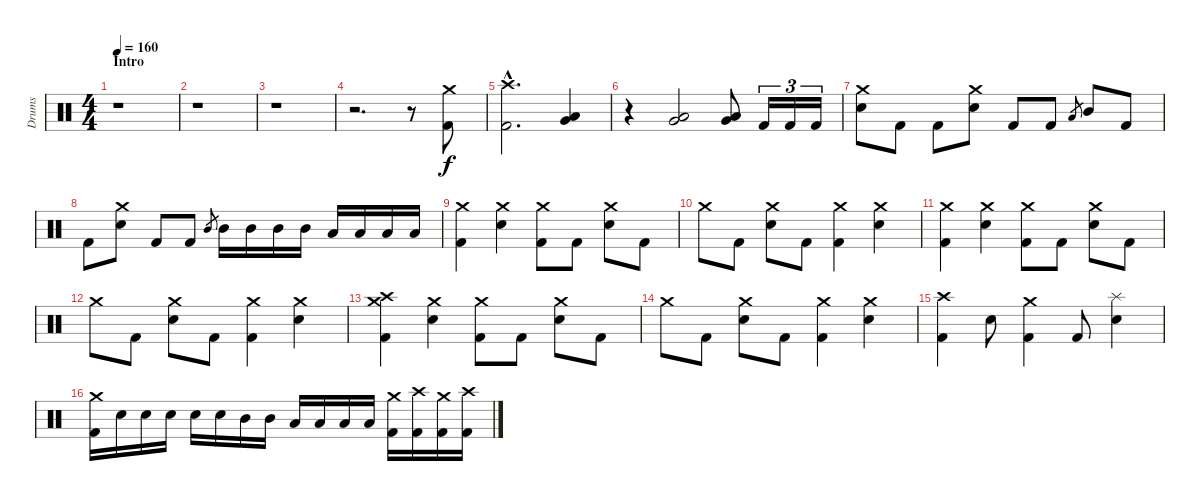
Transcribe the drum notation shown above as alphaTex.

\track ("Drums" "Drums") {instrument percussion}
\staff {score}
\articulation defaults
\ts (4 4)
\section ("" "Intro")
\tempo 160
\clef neutral
\ks c
r.1{dy f} |
r.1 |
r.1 |
r.2{d} r.8 ("Crash medium (hit)" "Kick (hit) 2").8 |
("Crash high (hit)"{hac} "Kick (hit) 2"{hac}).2{d} ("Very Low Tom (hit)" "Low Floor Tom (hit)").4 |
r.4 ("Very Low Tom (hit)" "Low Floor Tom (hit)").2 ("Very Low Tom (hit)" "Low Floor Tom (hit)").8 "Kick (hit) 2".16{tu (3 2)} "Kick (hit) 2".16{tu (3 2)} "Kick (hit) 2".16{tu (3 2)} |
("Crash medium (hit)" "Snare (hit) 2").8 "Kick (hit) 2".8 "Kick (hit) 2".8 ("Crash medium (hit)" "Snare (hit) 2").8 "Kick (hit) 2".8 "Kick (hit) 2".8 "Low Tom (hit)".8{gr} "Mid Tom (hit)".8 "Kick (hit) 2".8 |
"Kick (hit) 2".8 ("Crash medium (hit)" "Snare (hit) 2").8 "Kick (hit) 2".8 "Kick (hit) 2".8 "Mid Tom (hit)".8{gr} "Mid Tom (hit)".16 "Mid Tom (hit)".16 "Mid Tom (hit)".16 "Mid Tom (hit)".16 "Low Tom (hit)".16 "Low Tom (hit)".16 "Low Tom (hit)".16 "Low Tom (hit)".16 |
("Crash medium (hit)" "Kick (hit) 2").4 ("Crash medium (hit)" "Snare (hit) 2").4 ("Crash medium (hit)" "Kick (hit) 2").8 "Kick (hit) 2".8 ("Crash medium (hit)" "Snare (hit) 2").8 "Kick (hit) 2".8 |
"Crash medium (hit)".8 "Kick (hit) 2".8 ("Crash medium (hit)" "Snare (hit) 2").8 "Kick (hit) 2".8 ("Crash medium (hit)" "Kick (hit) 2").4 ("Crash medium (hit)" "Snare (hit) 2").4 |
("Crash medium (hit)" "Kick (hit) 2").4 ("Crash medium (hit)" "Snare (hit) 2").4 ("Crash medium (hit)" "Kick (hit) 2").8 "Kick (hit) 2".8 ("Crash medium (hit)" "Snare (hit) 2").8 "Kick (hit) 2".8 |
"Crash medium (hit)".8 "Kick (hit) 2".8 ("Crash medium (hit)" "Snare (hit) 2").8 "Kick (hit) 2".8 ("Crash medium (hit)" "Kick (hit) 2").4 ("Crash medium (hit)" "Snare (hit) 2").4 |
("Crash medium (hit)" "Crash high (hit)" "Kick (hit) 2").4 ("Crash medium (hit)" "Snare (hit) 2").4 ("Crash medium (hit)" "Kick (hit) 2").8 "Kick (hit) 2".8 ("Crash medium (hit)" "Snare (hit) 2").8 "Kick (hit) 2".8 |
"Crash medium (hit)".8 "Kick (hit) 2".8 ("Crash medium (hit)" "Snare (hit) 2").8 "Kick (hit) 2".8 ("Crash medium (hit)" "Kick (hit) 2").4 ("Crash medium (hit)" "Snare (hit) 2").4 |
("Crash high (hit)" "Kick (hit) 2").4 "Snare (hit) 2".8 ("Crash medium (hit)" "Kick (hit) 2").4 "Kick (hit) 2".8 ("Splash (hit)" "Snare (hit) 2").4 |
("Crash medium (hit)" "Kick (hit) 2").16 "Snare (hit) 2".16 "Snare (hit) 2".16 "Snare (hit) 2".16 "Snare (hit) 2".16 "Snare (hit) 2".16 "Mid Tom (hit)".16 "Mid Tom (hit)".16 "Low Tom (hit)".16 "Low Tom (hit)".16 "Low Tom (hit)".16 "Low Tom (hit)".16 ("Crash medium (hit)" "Kick (hit) 2").16 ("Crash high (hit)" "Kick (hit) 2").16 ("Crash medium (hit)" "Kick (hit) 2").16 ("Crash high (hit)" "Kick (hit) 2").16
